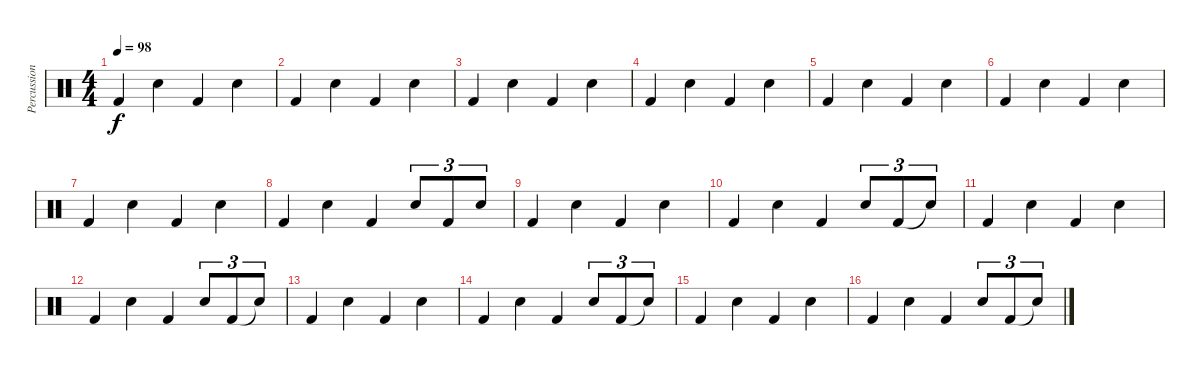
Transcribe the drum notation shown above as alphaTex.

\track ("Percussion" "Percussion") {instrument percussion}
\staff {score}
\articulation defaults
\ts (4 4)
\tempo 98
\clef neutral
\ks c "Kick (hit) 2".4{dy f} "Snare (hit) 2".4 "Kick (hit) 2".4 "Snare (hit) 2".4
|
"Kick (hit) 2".4 "Snare (hit) 2".4 "Kick (hit) 2".4 "Snare (hit) 2".4 |
"Kick (hit) 2".4 "Snare (hit) 2".4 "Kick (hit) 2".4 "Snare (hit) 2".4 |
"Kick (hit) 2".4 "Snare (hit) 2".4 "Kick (hit) 2".4 "Snare (hit) 2".4 |
"Kick (hit) 2".4 "Snare (hit) 2".4 "Kick (hit) 2".4 "Snare (hit) 2".4 |
"Kick (hit) 2".4 "Snare (hit) 2".4 "Kick (hit) 2".4 "Snare (hit) 2".4 |
"Kick (hit) 2".4 "Snare (hit) 2".4 "Kick (hit) 2".4 "Snare (hit) 2".4 |
"Kick (hit) 2".4 "Snare (hit) 2".4 "Kick (hit) 2".4 "Snare (hit) 2".8{tu (3 2)} "Kick (hit) 2".8{tu (3 2)} "Snare (hit) 2".8{tu (3 2)} |
"Kick (hit) 2".4 "Snare (hit) 2".4 "Kick (hit) 2".4 "Snare (hit) 2".4 |
"Kick (hit) 2".4 "Snare (hit) 2".4 "Kick (hit) 2".4 "Snare (hit) 2".8{tu (3 2)} "Kick (hit) 2".8{tu (3 2)} "Snare (hit)"{t}.8{tu (3 2)} |
"Kick (hit) 2".4 "Snare (hit) 2".4 "Kick (hit) 2".4 "Snare (hit) 2".4 |
"Kick (hit) 2".4 "Snare (hit) 2".4 "Kick (hit) 2".4 "Snare (hit) 2".8{tu (3 2)} "Kick (hit) 2".8{tu (3 2)} "Snare (hit)"{t}.8{tu (3 2)} |
"Kick (hit) 2".4 "Snare (hit) 2".4 "Kick (hit) 2".4 "Snare (hit) 2".4 |
"Kick (hit) 2".4 "Snare (hit) 2".4 "Kick (hit) 2".4 "Snare (hit) 2".8{tu (3 2)} "Kick (hit) 2".8{tu (3 2)} "Snare (hit)"{t}.8{tu (3 2)} |
"Kick (hit) 2".4 "Snare (hit) 2".4 "Kick (hit) 2".4 "Snare (hit) 2".4 |
"Kick (hit) 2".4 "Snare (hit) 2".4 "Kick (hit) 2".4 "Snare (hit) 2".8{tu (3 2)} "Kick (hit) 2".8{tu (3 2)} "Snare (hit)"{t}.8{tu (3 2)}
